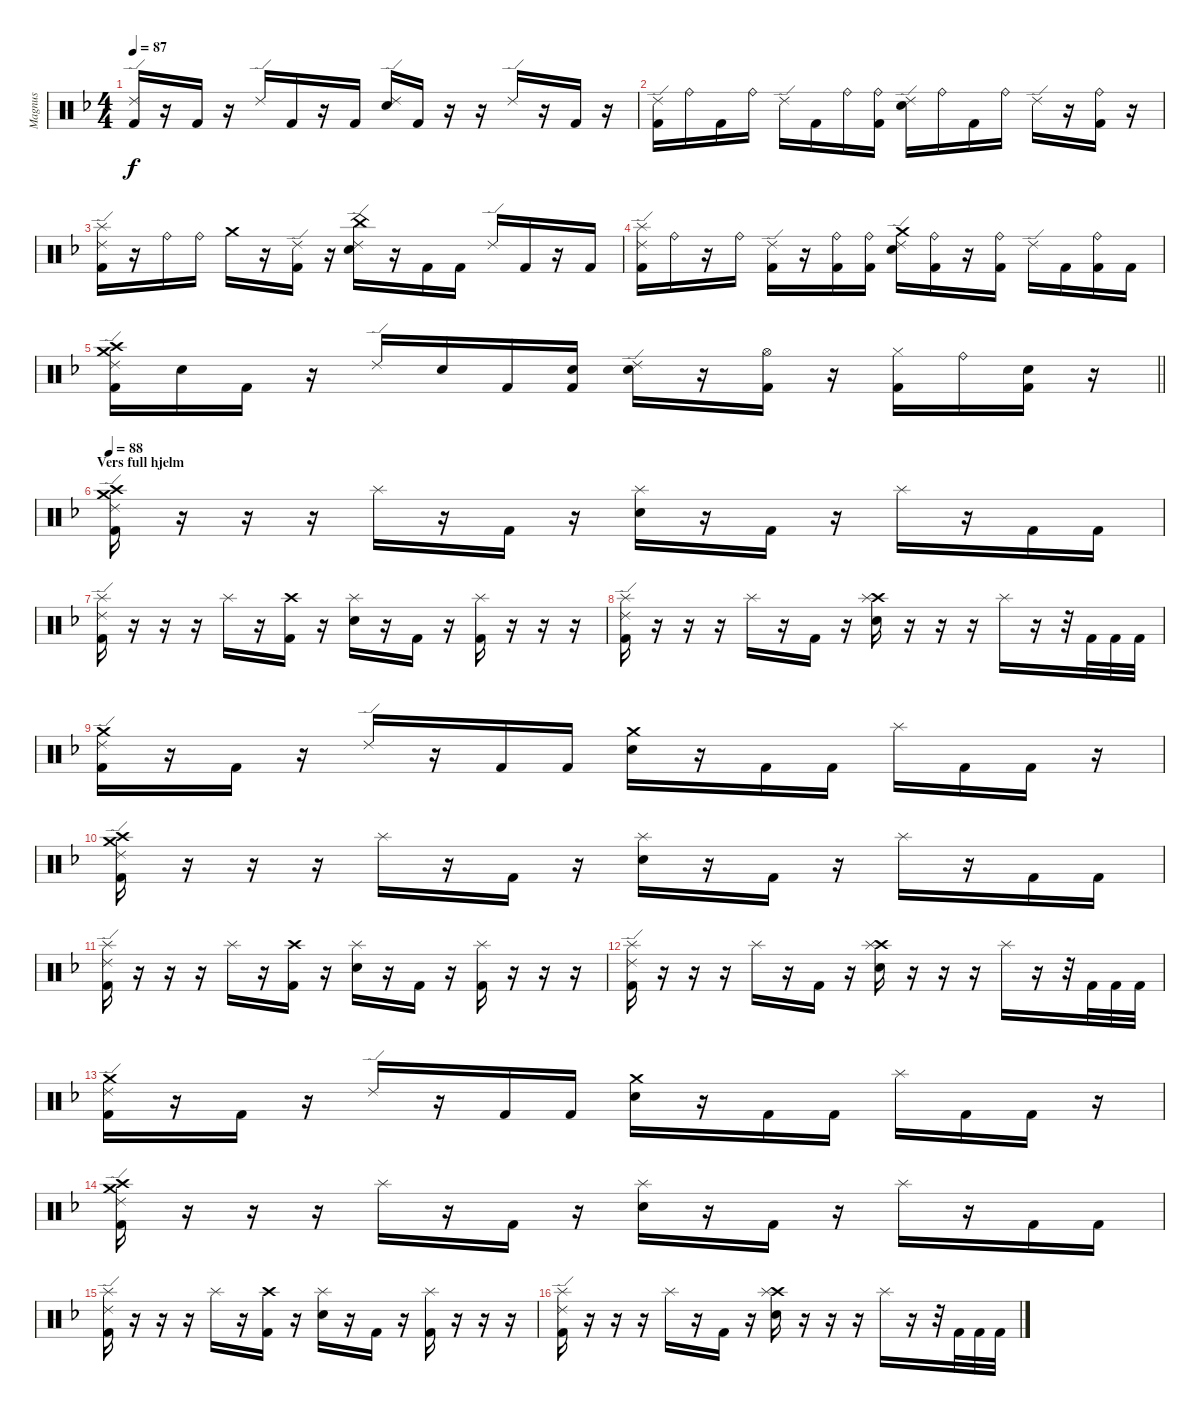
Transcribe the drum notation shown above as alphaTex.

\track ("Magnus" "Magnus") {instrument percussion}
\staff {score}
\articulation defaults
\ts (4 4)
\tempo 87
\clef neutral
\ks dminor
("Ride (edge) 2" "Kick (hit) 2").16{dy f} r.16 "Kick (hit) 2".16 r.16 "Ride (edge) 2".16 "Kick (hit) 2".16 r.16 "Kick (hit) 2".16 ("Ride (edge) 2" "Snare (hit) 2").16 "Kick (hit) 2".16 r.16 r.16 "Ride (edge) 2".16 r.16 "Kick (hit) 2".16 r.16 |
("Ride (edge) 2" "Kick (hit) 2").16 "Ride (bell)".16 "Kick (hit) 2".16 "Ride (bell)".16 "Ride (edge) 2".16 "Kick (hit) 2".16 "Ride (bell)".16 ("Ride (bell)" "Kick (hit) 2").16 ("Ride (edge) 2" "Snare (hit) 2").16 "Ride (bell)".16 "Kick (hit) 2".16 "Ride (bell)".16 "Ride (edge) 2".16 r.16 ("Ride (bell)" "Kick (hit) 2").16 r.16 |
("Splash (hit)" "Ride (edge) 2" "Kick (hit) 2").16 r.16 "Ride (bell)".16 "Ride (bell)".16 "Crash medium (hit)".16 r.16 ("Ride (edge) 2" "Kick (hit) 2").16 r.16 ("China (hit)" "Ride (edge) 2" "Snare (hit) 2").16 r.16 "Kick (hit) 2".16 "Kick (hit) 2".16 "Ride (edge) 2".16 "Kick (hit) 2".16 r.16 "Kick (hit) 2".16 |
("Splash (hit)" "Ride (edge) 2" "Kick (hit) 2").16 "Ride (bell)".16 r.16 "Ride (bell)".16 ("Ride (edge) 2" "Kick (hit) 2").16 r.16 ("Ride (bell)" "Kick (hit) 2").16 ("Ride (bell)" "Kick (hit) 2").16 ("Crash medium (hit)" "Ride (edge) 2" "Snare (hit) 2").16 ("Ride (bell)" "Kick (hit) 2").16 r.16 ("Ride (bell)" "Kick (hit) 2").16 "Ride (edge) 2".16 "Kick (hit) 2".16 ("Ride (bell)" "Kick (hit) 2").16 "Kick (hit) 2".16 |
\barLineRight lightlight
("Crash high (hit)" "Crash medium (hit)" "Ride (edge) 2" "Kick (hit) 2").16 "Snare (hit) 2".16 "Kick (hit) 2".16 r.16 "Ride (edge) 2".16 "Snare (hit) 2".16 "Kick (hit) 2".16 ("Snare (hit) 2" "Kick (hit) 2").16 ("Ride (edge) 2" "Snare (hit) 2").16 r.16 ("Hi-Hat (open)" "Kick (hit) 2").16 r.16 ("Hi-Hat (closed)" "Kick (hit) 2").16 "Ride (bell)".16 ("Snare (hit) 2" "Kick (hit) 2").16 r.16 |
\section ("" "Vers full hjelm")
\tempo 88
("Crash medium (hit)" "Crash high (hit)" "Ride (edge) 2" "Kick (hit) 2").16 r.16 r.16 r.16 "Splash (hit)".16 r.16 "Kick (hit) 2".16 r.16 ("Splash (hit)" "Snare (hit) 2").16 r.16 "Kick (hit) 2".16 r.16 "Splash (hit)".16 r.16 "Kick (hit) 2".16 "Kick (hit) 2".16 |
("Splash (hit)" "Ride (edge) 2" "Kick (hit) 2").16 r.16 r.16 r.16 "Splash (hit)".16 r.16 ("Crash high (hit)" "Kick (hit) 2").16 r.16 ("Splash (hit)" "Snare (hit) 2").16 r.16 "Kick (hit) 2".16 r.16 ("Splash (hit)" "Kick (hit) 2").16 r.16 r.16 r.16 |
("Splash (hit)" "Ride (edge) 2" "Kick (hit) 2").16 r.16 r.16 r.16 "Splash (hit)".16 r.16 "Kick (hit) 2".16 r.16 ("Crash high (hit)" "Splash (hit)" "Snare (hit) 2").16 r.16 r.16 r.16 "Splash (hit)".16 r.16 r.32 "Kick (hit) 2".32 "Kick (hit) 2".32 "Kick (hit) 2".32 |
("Ride (edge) 2" "Crash medium (hit)" "Kick (hit) 2").16 r.16 "Kick (hit) 2".16 r.16 "Ride (edge) 2".16 r.16 "Kick (hit) 2".16 "Kick (hit) 2".16 ("Crash medium (hit)" "Snare (hit) 2").16 r.16 "Kick (hit) 2".16 "Kick (hit) 2".16 "Splash (hit)".16 "Kick (hit) 2".16 "Kick (hit) 2".16 r.16 |
("Crash medium (hit)" "Crash high (hit)" "Ride (edge) 2" "Kick (hit) 2").16 r.16 r.16 r.16 "Splash (hit)".16 r.16 "Kick (hit) 2".16 r.16 ("Splash (hit)" "Snare (hit) 2").16 r.16 "Kick (hit) 2".16 r.16 "Splash (hit)".16 r.16 "Kick (hit) 2".16 "Kick (hit) 2".16 |
("Splash (hit)" "Ride (edge) 2" "Kick (hit) 2").16 r.16 r.16 r.16 "Splash (hit)".16 r.16 ("Crash high (hit)" "Kick (hit) 2").16 r.16 ("Splash (hit)" "Snare (hit) 2").16 r.16 "Kick (hit) 2".16 r.16 ("Splash (hit)" "Kick (hit) 2").16 r.16 r.16 r.16 |
("Splash (hit)" "Ride (edge) 2" "Kick (hit) 2").16 r.16 r.16 r.16 "Splash (hit)".16 r.16 "Kick (hit) 2".16 r.16 ("Crash high (hit)" "Splash (hit)" "Snare (hit) 2").16 r.16 r.16 r.16 "Splash (hit)".16 r.16 r.32 "Kick (hit) 2".32 "Kick (hit) 2".32 "Kick (hit) 2".32 |
("Ride (edge) 2" "Crash medium (hit)" "Kick (hit) 2").16 r.16 "Kick (hit) 2".16 r.16 "Ride (edge) 2".16 r.16 "Kick (hit) 2".16 "Kick (hit) 2".16 ("Crash medium (hit)" "Snare (hit) 2").16 r.16 "Kick (hit) 2".16 "Kick (hit) 2".16 "Splash (hit)".16 "Kick (hit) 2".16 "Kick (hit) 2".16 r.16 |
("Crash medium (hit)" "Crash high (hit)" "Ride (edge) 2" "Kick (hit) 2").16 r.16 r.16 r.16 "Splash (hit)".16 r.16 "Kick (hit) 2".16 r.16 ("Splash (hit)" "Snare (hit) 2").16 r.16 "Kick (hit) 2".16 r.16 "Splash (hit)".16 r.16 "Kick (hit) 2".16 "Kick (hit) 2".16 |
("Splash (hit)" "Ride (edge) 2" "Kick (hit) 2").16 r.16 r.16 r.16 "Splash (hit)".16 r.16 ("Crash high (hit)" "Kick (hit) 2").16 r.16 ("Splash (hit)" "Snare (hit) 2").16 r.16 "Kick (hit) 2".16 r.16 ("Splash (hit)" "Kick (hit) 2").16 r.16 r.16 r.16 |
("Splash (hit)" "Ride (edge) 2" "Kick (hit) 2").16 r.16 r.16 r.16 "Splash (hit)".16 r.16 "Kick (hit) 2".16 r.16 ("Crash high (hit)" "Splash (hit)" "Snare (hit) 2").16 r.16 r.16 r.16 "Splash (hit)".16 r.16 r.32 "Kick (hit) 2".32 "Kick (hit) 2".32 "Kick (hit) 2".32
